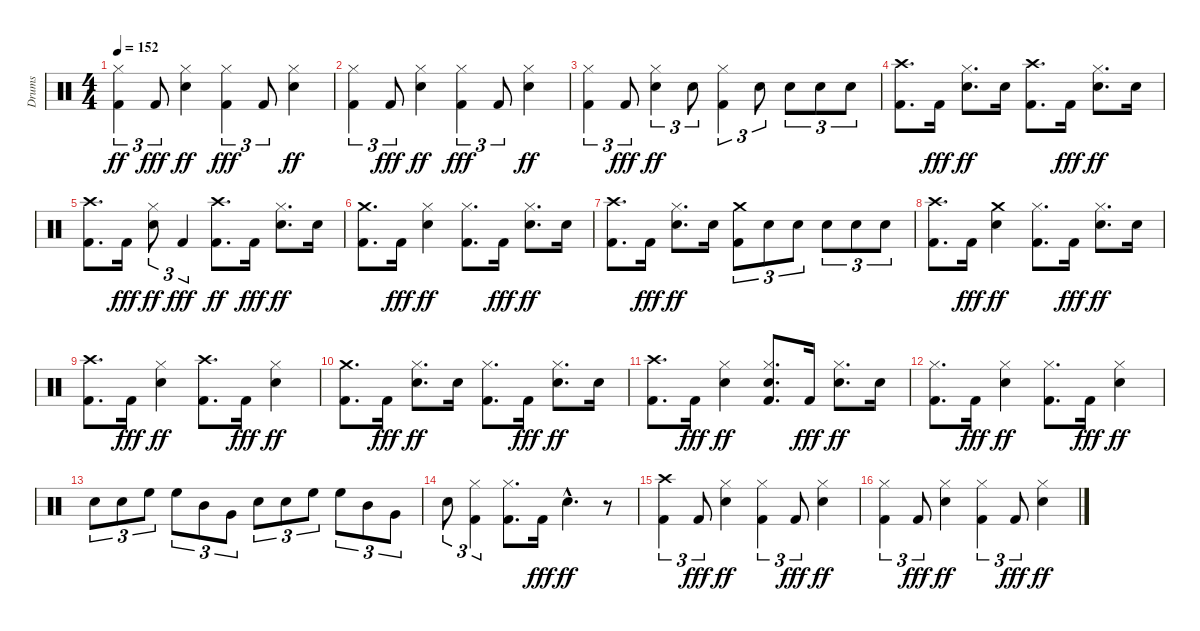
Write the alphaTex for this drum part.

\track ("Drums" "Drums") {instrument percussion}
\staff {score}
\articulation defaults
\ts (4 4)
\tempo 152
\clef neutral
\ks c
("Kick (hit) 2" "Hi-Hat (closed)").4{tu (3 2) dy ff} "Kick (hit) 2".8{tu (3 2) dy fff} ("Snare (hit) 2" "Hi-Hat (closed)").4{dy ff} ("Hi-Hat (closed)" "Kick (hit) 2").4{tu (3 2) dy fff} "Kick (hit) 2".8{tu (3 2)} ("Snare (hit) 2" "Hi-Hat (closed)").4{dy ff} |
("Kick (hit) 2" "Hi-Hat (closed)").4{tu (3 2)} "Kick (hit) 2".8{tu (3 2) dy fff} ("Snare (hit) 2" "Hi-Hat (closed)").4{dy ff} ("Hi-Hat (closed)" "Kick (hit) 2").4{tu (3 2) dy fff} "Kick (hit) 2".8{tu (3 2)} ("Snare (hit) 2" "Hi-Hat (closed)").4{dy ff} |
("Kick (hit) 2" "Hi-Hat (closed)").4{tu (3 2)} "Kick (hit) 2".8{tu (3 2) dy fff} ("Snare (hit) 2" "Hi-Hat (closed)").4{tu (3 2) dy ff} "Snare (hit) 2".8{tu (3 2)} ("Kick (hit) 2" "Hi-Hat (closed)").4{tu (3 2)} "Snare (hit) 2".8{tu (3 2)} "Snare (hit) 2".8{tu (3 2)} "Snare (hit) 2".8{tu (3 2)} "Snare (hit) 2".8{tu (3 2)} |
("Kick (hit) 2" "Crash high (hit)").8{d} "Kick (hit) 2".16{dy fff} ("Snare (hit) 2" "Hi-Hat (closed)").8{d dy ff} "Snare (hit) 2".16 ("Kick (hit) 2" "Crash high (hit)").8{d} "Kick (hit) 2".16{dy fff} ("Snare (hit) 2" "Hi-Hat (closed)").8{d dy ff} "Snare (hit) 2".16 |
("Kick (hit) 2" "Crash high (hit)").8{d} "Kick (hit) 2".16{dy fff} ("Snare (hit) 2" "Hi-Hat (closed)").8{tu (3 2) dy ff} "Kick (hit) 2".4{tu (3 2) dy fff} ("Kick (hit) 2" "Crash high (hit)").8{d dy ff} "Kick (hit) 2".16{dy fff} ("Snare (hit) 2" "Hi-Hat (closed)").8{d dy ff} "Snare (hit) 2".16 |
("Kick (hit) 2" "Crash medium (hit)").8{d} "Kick (hit) 2".16{dy fff} ("Snare (hit) 2" "Hi-Hat (closed)").4{dy ff} ("Kick (hit) 2" "Hi-Hat (closed)").8{d} "Kick (hit) 2".16{dy fff} ("Snare (hit) 2" "Hi-Hat (closed)").8{d dy ff} "Snare (hit) 2".16 |
("Kick (hit) 2" "Crash high (hit)").8{d} "Kick (hit) 2".16{dy fff} ("Snare (hit) 2" "Hi-Hat (closed)").8{d dy ff} "Snare (hit) 2".16 ("Kick (hit) 2" "Crash medium (hit)").8{tu (3 2)} "Snare (hit) 2".8{tu (3 2)} "Snare (hit) 2".8{tu (3 2)} "Snare (hit) 2".8{tu (3 2)} "Snare (hit) 2".8{tu (3 2)} "Snare (hit) 2".8{tu (3 2)} |
("Kick (hit) 2" "Crash high (hit)").8{d} "Kick (hit) 2".16{dy fff} ("Snare (hit) 2" "Crash medium (hit)").4{dy ff} ("Kick (hit) 2" "Hi-Hat (closed)").8{d} "Kick (hit) 2".16{dy fff} ("Snare (hit) 2" "Hi-Hat (closed)").8{d dy ff} "Snare (hit) 2".16 |
("Kick (hit) 2" "Crash high (hit)").8{d} "Kick (hit) 2".16{dy fff} ("Snare (hit) 2" "Hi-Hat (closed)").4{dy ff} ("Kick (hit) 2" "Crash high (hit)").8{d} "Kick (hit) 2".16{dy fff} ("Snare (hit) 2" "Hi-Hat (closed)").4{dy ff} |
("Kick (hit) 2" "Crash medium (hit)").8{d} "Kick (hit) 2".16{dy fff} ("Snare (hit) 2" "Hi-Hat (closed)").8{d dy ff} "Snare (hit) 2".16 ("Kick (hit) 2" "Hi-Hat (closed)").8{d} "Kick (hit) 2".16{dy fff} ("Snare (hit) 2" "Hi-Hat (closed)").8{d dy ff} "Snare (hit) 2".16 |
("Kick (hit) 2" "Crash high (hit)").8{d} "Kick (hit) 2".16{dy fff} ("Snare (hit) 2" "Hi-Hat (closed)").4{dy ff} ("Snare (hit) 2" "Kick (hit) 2" "Hi-Hat (closed)").8{d} "Kick (hit) 2".16{dy fff} ("Snare (hit) 2" "Hi-Hat (closed)").8{d dy ff} "Snare (hit) 2".16 |
("Kick (hit) 2" "Hi-Hat (closed)").8{d} "Kick (hit) 2".16{dy fff} ("Snare (hit) 2" "Hi-Hat (closed)").4{dy ff} ("Kick (hit) 2" "Hi-Hat (closed)").8{d} "Kick (hit) 2".16{dy fff} ("Snare (hit) 2" "Hi-Hat (closed)").4{dy ff} |
"Snare (hit) 2".8{tu (3 2)} "Snare (hit) 2".8{tu (3 2)} "High Floor Tom (hit)".8{tu (3 2)} "High Floor Tom (hit)".8{tu (3 2)} "Mid Tom (hit)".8{tu (3 2)} "Very Low Tom (hit)".8{tu (3 2)} "Snare (hit) 2".8{tu (3 2)} "Snare (hit) 2".8{tu (3 2)} "High Floor Tom (hit)".8{tu (3 2)} "High Floor Tom (hit)".8{tu (3 2)} "Mid Tom (hit)".8{tu (3 2)} "Very Low Tom (hit)".8{tu (3 2)} |
"Snare (hit) 2".8{tu (3 2)} ("Kick (hit) 2" "Hi-Hat (closed)").4{tu (3 2)} ("Kick (hit) 2" "Hi-Hat (closed)").8{d} "Kick (hit) 2".16{dy fff} "Snare (hit) 2"{hac}.4{d dy ff} r.8 |
("Kick (hit) 2" "Crash high (hit)").4{tu (3 2)} "Kick (hit) 2".8{tu (3 2) dy fff} ("Snare (hit) 2" "Hi-Hat (closed)").4{dy ff} ("Kick (hit) 2" "Hi-Hat (closed)").4{tu (3 2)} "Kick (hit) 2".8{tu (3 2) dy fff} ("Snare (hit) 2" "Hi-Hat (closed)").4{dy ff} |
("Kick (hit) 2" "Hi-Hat (closed)").4{tu (3 2)} "Kick (hit) 2".8{tu (3 2) dy fff} ("Snare (hit) 2" "Hi-Hat (closed)").4{dy ff} ("Kick (hit) 2" "Hi-Hat (closed)").4{tu (3 2)} "Kick (hit) 2".8{tu (3 2) dy fff} ("Snare (hit) 2" "Hi-Hat (closed)").4{dy ff}
